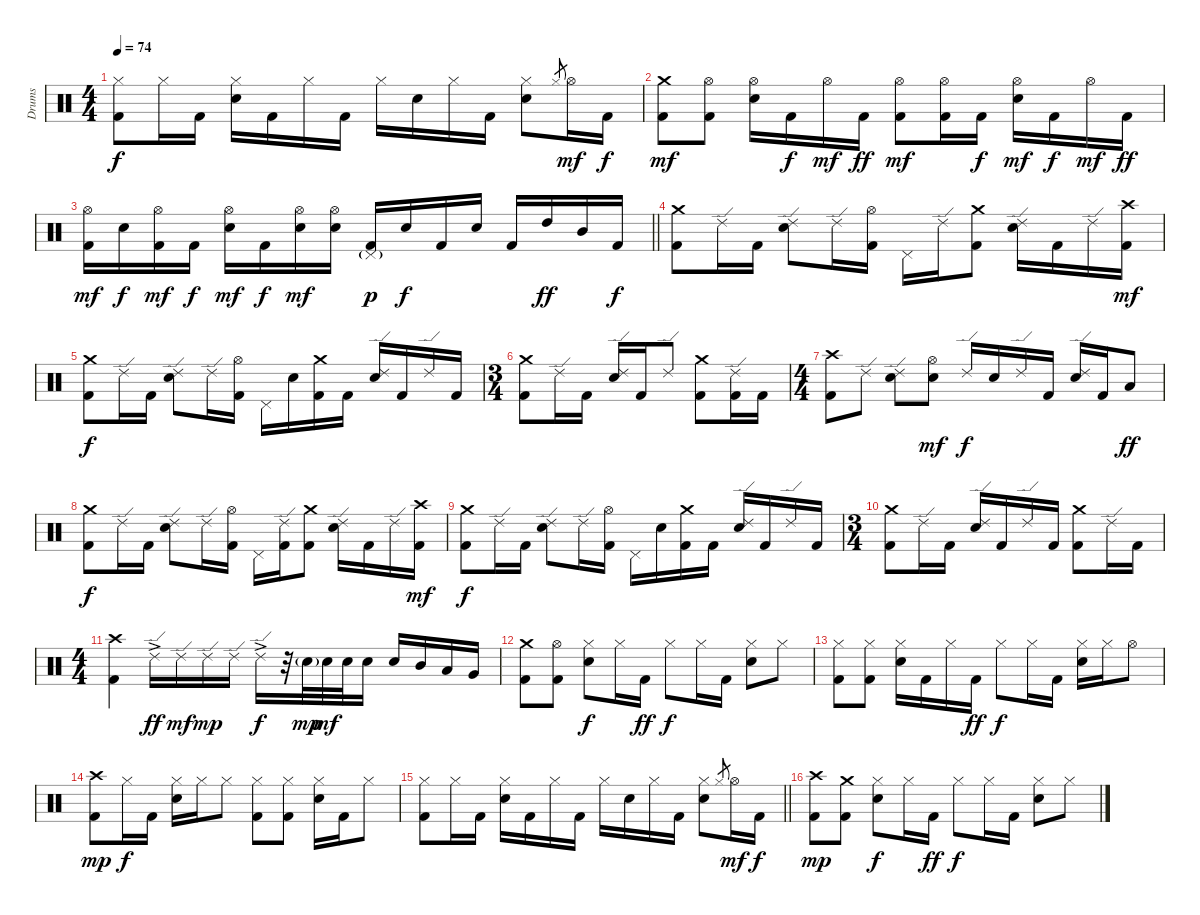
\track ("Drums" "Drums") {instrument percussion}
\staff {score}
\articulation defaults
\ts (4 4)
\tempo 74
\clef neutral
\ks c
("Hi-Hat (closed)" "Kick (hit) 2").8{dy f} "Hi-Hat (closed)".16 "Kick (hit) 2".16 ("Hi-Hat (closed)" "Snare (hit) 2").16 "Kick (hit) 2".16 "Hi-Hat (closed)".16 "Kick (hit) 2".16 "Hi-Hat (closed)".16 "Snare (hit) 2".16 "Hi-Hat (closed)".16 "Kick (hit) 2".16 ("Hi-Hat (closed)" "Snare (hit) 2").8 "Hi-Hat (closed)".8{gr} "Hi-Hat (open)".16{dy mf} "Kick (hit) 2".16{dy f} |
("Crash medium (hit)" "Kick (hit) 2").8{dy mf} ("Hi-Hat (open)" "Kick (hit) 2").8 ("Hi-Hat (open)" "Snare (hit) 2").16 "Kick (hit) 2".16{dy f} "Hi-Hat (open)".16{dy mf} "Kick (hit) 2".16{dy ff} ("Hi-Hat (open)" "Kick (hit) 2").8{dy mf} ("Hi-Hat (open)" "Kick (hit) 2").16 "Kick (hit) 2".16{dy f} ("Hi-Hat (open)" "Snare (hit) 2").16{dy mf} "Kick (hit) 2".16{dy f} "Hi-Hat (open)".16{dy mf} "Kick (hit) 2".16{dy ff} |
\barLineRight lightlight
("Hi-Hat (open)" "Kick (hit) 2").16{dy mf} "Snare (hit) 2".16{dy f} ("Hi-Hat (open)" "Kick (hit) 2").16{dy mf} "Kick (hit) 2".16{dy f} ("Hi-Hat (open)" "Snare (hit) 2").16{dy mf} "Kick (hit) 2".16{dy f} ("Hi-Hat (open)" "Snare (hit) 2").16{dy mf} ("Hi-Hat (open)" "Snare (hit) 2").16 ("Pedal Hi-Hat (hit)"{g} "Kick (hit) 2").16{dy p} "Snare (hit) 2".16{dy f} "Kick (hit) 2".16 "Snare (hit) 2".16 "Kick (hit) 2".16 "High Tom (hit)".16{dy ff} "Mid Tom (hit)".16 "Kick (hit) 2".16{dy f} |
("Crash medium (hit)" "Kick (hit) 2").8 "Ride (edge) 2".16 "Kick (hit) 2".16 ("Ride (edge) 2" "Snare (hit) 2").8 "Ride (edge) 2".16 ("Hi-Hat (open)" "Kick (hit) 2").16 "Pedal Hi-Hat (hit)".16 "Ride (edge) 2".16 ("Crash medium (hit)" "Kick (hit) 2").8 ("Ride (edge) 2" "Snare (hit) 2").16 "Kick (hit) 2".16 "Ride (edge) 2".16 ("Crash high (hit)" "Kick (hit) 2").16{dy mf} |
("Crash medium (hit)" "Kick (hit) 2").8{dy f} "Ride (edge) 2".16 "Kick (hit) 2".16 ("Ride (edge) 2" "Snare (hit) 2").8 "Ride (edge) 2".16 ("Hi-Hat (open)" "Kick (hit) 2").16 "Pedal Hi-Hat (hit)".16 "Snare (hit) 2".16 ("Crash medium (hit)" "Kick (hit) 2").16 "Kick (hit) 2".16 ("Ride (edge) 2" "Snare (hit) 2").16 "Kick (hit) 2".16 "Ride (edge) 2".16 "Kick (hit) 2".16 |
\ts (3 4)
("Crash medium (hit)" "Kick (hit) 2").8 "Ride (edge) 2".16 "Kick (hit) 2".16 ("Ride (edge) 2" "Snare (hit) 2").16 "Kick (hit) 2".16 "Ride (edge) 2".8 ("Crash medium (hit)" "Kick (hit) 2").8 ("Ride (edge) 2" "Kick (hit) 2").16 "Kick (hit) 2".16 |
\ts (4 4)
("Crash high (hit)" "Kick (hit) 2").8 "Ride (edge) 2".8 ("Ride (edge) 2" "Snare (hit) 2").8 ("Hi-Hat (open)" "Snare (hit) 2").8{dy mf} "Ride (edge) 2".16{dy f} "Snare (hit) 2".16 "Ride (edge) 2".16 "Kick (hit) 2".16 ("Ride (edge) 2" "Snare (hit) 2").16 "Kick (hit) 2".16 "Low Tom (hit)".8{dy ff} |
("Crash medium (hit)" "Kick (hit) 2").8{dy f} "Ride (edge) 2".16 "Kick (hit) 2".16 ("Ride (edge) 2" "Snare (hit) 2").8 "Ride (edge) 2".16 ("Hi-Hat (open)" "Kick (hit) 2").16 "Pedal Hi-Hat (hit)".16 ("Ride (edge) 2" "Kick (hit) 2").16 ("Crash medium (hit)" "Kick (hit) 2").8 ("Ride (edge) 2" "Snare (hit) 2").16 "Kick (hit) 2".16 "Ride (edge) 2".16 ("Crash high (hit)" "Kick (hit) 2").16{dy mf} |
("Crash medium (hit)" "Kick (hit) 2").8{dy f} "Ride (edge) 2".16 "Kick (hit) 2".16 ("Ride (edge) 2" "Snare (hit) 2").8 "Ride (edge) 2".16 ("Hi-Hat (open)" "Kick (hit) 2").16 "Pedal Hi-Hat (hit)".16 "Snare (hit) 2".16 ("Crash medium (hit)" "Kick (hit) 2").16 "Kick (hit) 2".16 ("Ride (edge) 2" "Snare (hit) 2").16 "Kick (hit) 2".16 "Ride (edge) 2".16 "Kick (hit) 2".16 |
\ts (3 4)
("Crash medium (hit)" "Kick (hit) 2").8 "Ride (edge) 2".16 "Kick (hit) 2".16 ("Ride (edge) 2" "Snare (hit) 2").16 "Kick (hit) 2".16 "Ride (edge) 2".16 "Kick (hit) 2".16 ("Crash medium (hit)" "Kick (hit) 2").8 "Ride (edge) 2".16 "Kick (hit) 2".16 |
\ts (4 4)
("Crash high (hit)" "Kick (hit) 2").4 "Ride (edge) 2"{ac}.16{dy ff} "Ride (edge) 2".16{dy mf} "Ride (edge) 2".16{dy mp} "Ride (edge) 2".16 "Ride (edge) 2"{ac}.16{dy f} r.32 "Snare (hit) 2"{g}.32{dy mp} "Snare (hit) 2".32{dy mf} "Snare (hit) 2".32 "Snare (hit) 2".16 "Snare (hit) 2".16 "Mid Tom (hit)".16 "Low Tom (hit)".16 "Very Low Tom (hit)".16 |
("Crash medium (hit)" "Kick (hit) 2").8 ("Hi-Hat (open)" "Kick (hit) 2").8 ("Hi-Hat (closed)" "Snare (hit) 2").8{dy f} "Hi-Hat (closed)".16 "Kick (hit) 2".16{dy ff} "Hi-Hat (closed)".8{dy f} "Hi-Hat (closed)".16 "Kick (hit) 2".16 ("Hi-Hat (closed)" "Snare (hit) 2").8 "Hi-Hat (closed)".8 |
("Hi-Hat (closed)" "Kick (hit) 2").8 ("Hi-Hat (closed)" "Kick (hit) 2").8 ("Hi-Hat (closed)" "Snare (hit) 2").16 "Kick (hit) 2".16 "Hi-Hat (closed)".16 "Kick (hit) 2".16{dy ff} "Hi-Hat (closed)".8{dy f} "Hi-Hat (closed)".16 "Kick (hit) 2".16 ("Hi-Hat (closed)" "Snare (hit) 2").16 "Hi-Hat (closed)".16 "Hi-Hat (open)".8 |
("Crash high (hit)" "Kick (hit) 2").8{dy mp} "Hi-Hat (closed)".16{dy f} "Kick (hit) 2".16 ("Hi-Hat (closed)" "Snare (hit) 2").16 "Hi-Hat (closed)".16 "Hi-Hat (closed)".8 ("Hi-Hat (closed)" "Kick (hit) 2").8 ("Hi-Hat (closed)" "Kick (hit) 2").8 ("Hi-Hat (closed)" "Snare (hit) 2").16 "Kick (hit) 2".16 "Hi-Hat (closed)".8 |
\barLineRight lightlight
("Hi-Hat (closed)" "Kick (hit) 2").8 "Hi-Hat (closed)".16 "Kick (hit) 2".16 ("Hi-Hat (closed)" "Snare (hit) 2").16 "Kick (hit) 2".16 "Hi-Hat (closed)".16 "Kick (hit) 2".16 "Hi-Hat (closed)".16 "Snare (hit) 2".16 "Hi-Hat (closed)".16 "Kick (hit) 2".16 ("Hi-Hat (closed)" "Snare (hit) 2").8 "Hi-Hat (closed)".8{gr} "Hi-Hat (open)".16{dy mf} "Kick (hit) 2".16{dy f} |
("Crash high (hit)" "Kick (hit) 2").8{dy mp} ("Crash medium (hit)" "Kick (hit) 2").8 ("Hi-Hat (closed)" "Snare (hit) 2").8{dy f} "Hi-Hat (closed)".16 "Kick (hit) 2".16{dy ff} "Hi-Hat (closed)".8{dy f} "Hi-Hat (closed)".16 "Kick (hit) 2".16 ("Hi-Hat (closed)" "Snare (hit) 2").8 "Hi-Hat (closed)".8
